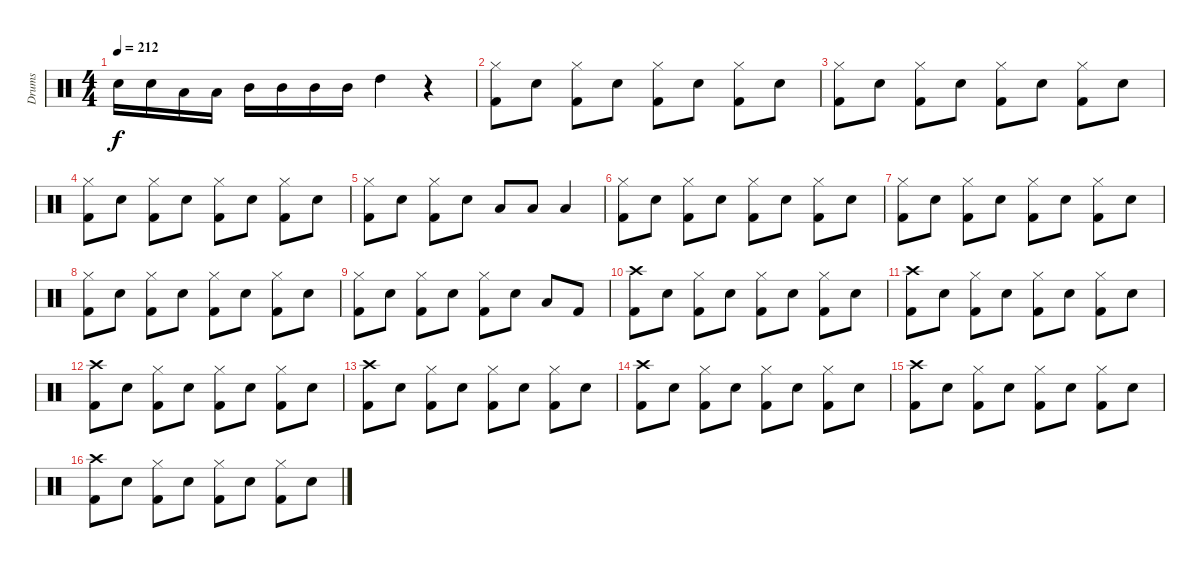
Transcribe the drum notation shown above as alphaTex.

\track ("Drums" "Drums") {instrument percussion}
\staff {score}
\articulation defaults
\ts (4 4)
\tempo 212
\clef neutral
\ks c "Snare (hit) 2".16{dy f} "Snare (hit) 2".16 "Low Tom (hit)".16 "Low Tom (hit)".16 "Mid Tom (hit)".16 "Mid Tom (hit)".16 "Mid Tom (hit)".16 "Mid Tom (hit)".16 "High Tom (hit)".4
r.4 |
("Hi-Hat (closed)" "Kick (hit) 2").8 "Snare (hit) 2".8 ("Hi-Hat (closed)" "Kick (hit) 2").8 "Snare (hit) 2".8 ("Hi-Hat (closed)" "Kick (hit) 2").8 "Snare (hit) 2".8 ("Hi-Hat (closed)" "Kick (hit) 2").8 "Snare (hit) 2".8 |
("Hi-Hat (closed)" "Kick (hit) 2").8 "Snare (hit) 2".8 ("Hi-Hat (closed)" "Kick (hit) 2").8 "Snare (hit) 2".8 ("Hi-Hat (closed)" "Kick (hit) 2").8 "Snare (hit) 2".8 ("Hi-Hat (closed)" "Kick (hit) 2").8 "Snare (hit) 2".8 |
("Hi-Hat (closed)" "Kick (hit) 2").8 "Snare (hit) 2".8 ("Hi-Hat (closed)" "Kick (hit) 2").8 "Snare (hit) 2".8 ("Hi-Hat (closed)" "Kick (hit) 2").8 "Snare (hit) 2".8 ("Hi-Hat (closed)" "Kick (hit) 2").8 "Snare (hit) 2".8 |
("Hi-Hat (closed)" "Kick (hit) 2").8 "Snare (hit) 2".8 ("Hi-Hat (closed)" "Kick (hit) 2").8 "Snare (hit) 2".8 "Low Tom (hit)".8 "Low Tom (hit)".8 "Low Tom (hit)".4 |
("Hi-Hat (closed)" "Kick (hit) 2").8 "Snare (hit) 2".8 ("Hi-Hat (closed)" "Kick (hit) 2").8 "Snare (hit) 2".8 ("Hi-Hat (closed)" "Kick (hit) 2").8 "Snare (hit) 2".8 ("Hi-Hat (closed)" "Kick (hit) 2").8 "Snare (hit) 2".8 |
("Hi-Hat (closed)" "Kick (hit) 2").8 "Snare (hit) 2".8 ("Hi-Hat (closed)" "Kick (hit) 2").8 "Snare (hit) 2".8 ("Hi-Hat (closed)" "Kick (hit) 2").8 "Snare (hit) 2".8 ("Hi-Hat (closed)" "Kick (hit) 2").8 "Snare (hit) 2".8 |
("Hi-Hat (closed)" "Kick (hit) 2").8 "Snare (hit) 2".8 ("Hi-Hat (closed)" "Kick (hit) 2").8 "Snare (hit) 2".8 ("Hi-Hat (closed)" "Kick (hit) 2").8 "Snare (hit) 2".8 ("Hi-Hat (closed)" "Kick (hit) 2").8 "Snare (hit) 2".8 |
("Hi-Hat (closed)" "Kick (hit) 2").8 "Snare (hit) 2".8 ("Hi-Hat (closed)" "Kick (hit) 2").8 "Snare (hit) 2".8 ("Hi-Hat (closed)" "Kick (hit) 2").8 "Snare (hit) 2".8 "Low Tom (hit)".8 "Kick (hit) 2".8 |
("Crash high (hit)" "Kick (hit) 2").8 "Snare (hit) 2".8 ("Hi-Hat (closed)" "Kick (hit) 2").8 "Snare (hit) 2".8 ("Hi-Hat (closed)" "Kick (hit) 2").8 "Snare (hit) 2".8 ("Hi-Hat (closed)" "Kick (hit) 2").8 "Snare (hit) 2".8 |
("Crash high (hit)" "Kick (hit) 2").8 "Snare (hit) 2".8 ("Hi-Hat (closed)" "Kick (hit) 2").8 "Snare (hit) 2".8 ("Hi-Hat (closed)" "Kick (hit) 2").8 "Snare (hit) 2".8 ("Hi-Hat (closed)" "Kick (hit) 2").8 "Snare (hit) 2".8 |
("Crash high (hit)" "Kick (hit) 2").8 "Snare (hit) 2".8 ("Hi-Hat (closed)" "Kick (hit) 2").8 "Snare (hit) 2".8 ("Hi-Hat (closed)" "Kick (hit) 2").8 "Snare (hit) 2".8 ("Hi-Hat (closed)" "Kick (hit) 2").8 "Snare (hit) 2".8 |
("Crash high (hit)" "Kick (hit) 2").8 "Snare (hit) 2".8 ("Hi-Hat (closed)" "Kick (hit) 2").8 "Snare (hit) 2".8 ("Hi-Hat (closed)" "Kick (hit) 2").8 "Snare (hit) 2".8 ("Hi-Hat (closed)" "Kick (hit) 2").8 "Snare (hit) 2".8 |
("Crash high (hit)" "Kick (hit) 2").8 "Snare (hit) 2".8 ("Hi-Hat (closed)" "Kick (hit) 2").8 "Snare (hit) 2".8 ("Hi-Hat (closed)" "Kick (hit) 2").8 "Snare (hit) 2".8 ("Hi-Hat (closed)" "Kick (hit) 2").8 "Snare (hit) 2".8 |
("Crash high (hit)" "Kick (hit) 2").8 "Snare (hit) 2".8 ("Hi-Hat (closed)" "Kick (hit) 2").8 "Snare (hit) 2".8 ("Hi-Hat (closed)" "Kick (hit) 2").8 "Snare (hit) 2".8 ("Hi-Hat (closed)" "Kick (hit) 2").8 "Snare (hit) 2".8 |
("Crash high (hit)" "Kick (hit) 2").8 "Snare (hit) 2".8 ("Hi-Hat (closed)" "Kick (hit) 2").8 "Snare (hit) 2".8 ("Hi-Hat (closed)" "Kick (hit) 2").8 "Snare (hit) 2".8 ("Hi-Hat (closed)" "Kick (hit) 2").8 "Snare (hit) 2".8
